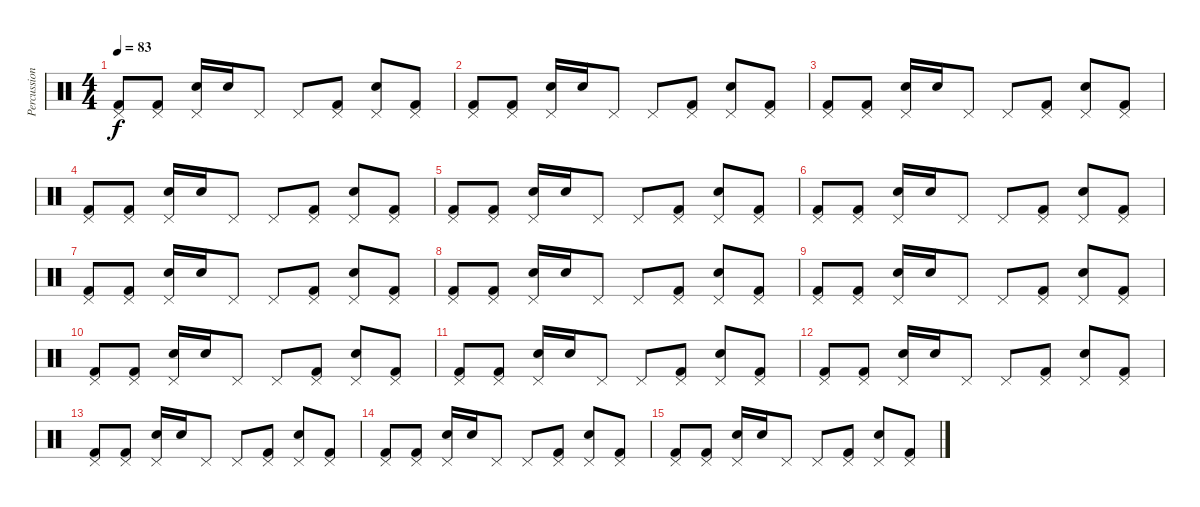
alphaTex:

\track ("Percussion" "Percussion") {instrument percussion}
\staff {score}
\articulation defaults
\ts (4 4)
\tempo 83
\clef neutral
\ks c
("Pedal Hi-Hat (hit)" "Kick (hit) 2").8{dy f} ("Pedal Hi-Hat (hit)" "Kick (hit) 2").8 ("Pedal Hi-Hat (hit)" "Snare (hit) 2").16 "Snare (hit) 2".16 "Pedal Hi-Hat (hit)".8 "Pedal Hi-Hat (hit)".8 ("Pedal Hi-Hat (hit)" "Kick (hit) 2").8 ("Pedal Hi-Hat (hit)" "Snare (hit) 2").8 ("Pedal Hi-Hat (hit)" "Kick (hit) 2").8 |
("Pedal Hi-Hat (hit)" "Kick (hit) 2").8 ("Pedal Hi-Hat (hit)" "Kick (hit) 2").8 ("Pedal Hi-Hat (hit)" "Snare (hit) 2").16 "Snare (hit) 2".16 "Pedal Hi-Hat (hit)".8 "Pedal Hi-Hat (hit)".8 ("Pedal Hi-Hat (hit)" "Kick (hit) 2").8 ("Pedal Hi-Hat (hit)" "Snare (hit) 2").8 ("Pedal Hi-Hat (hit)" "Kick (hit) 2").8 |
("Pedal Hi-Hat (hit)" "Kick (hit) 2").8 ("Pedal Hi-Hat (hit)" "Kick (hit) 2").8 ("Pedal Hi-Hat (hit)" "Snare (hit) 2").16 "Snare (hit) 2".16 "Pedal Hi-Hat (hit)".8 "Pedal Hi-Hat (hit)".8 ("Pedal Hi-Hat (hit)" "Kick (hit) 2").8 ("Pedal Hi-Hat (hit)" "Snare (hit) 2").8 ("Pedal Hi-Hat (hit)" "Kick (hit) 2").8 |
("Pedal Hi-Hat (hit)" "Kick (hit) 2").8 ("Pedal Hi-Hat (hit)" "Kick (hit) 2").8 ("Pedal Hi-Hat (hit)" "Snare (hit) 2").16 "Snare (hit) 2".16 "Pedal Hi-Hat (hit)".8 "Pedal Hi-Hat (hit)".8 ("Pedal Hi-Hat (hit)" "Kick (hit) 2").8 ("Pedal Hi-Hat (hit)" "Snare (hit) 2").8 ("Pedal Hi-Hat (hit)" "Kick (hit) 2").8 |
("Pedal Hi-Hat (hit)" "Kick (hit) 2").8 ("Pedal Hi-Hat (hit)" "Kick (hit) 2").8 ("Pedal Hi-Hat (hit)" "Snare (hit) 2").16 "Snare (hit) 2".16 "Pedal Hi-Hat (hit)".8 "Pedal Hi-Hat (hit)".8 ("Pedal Hi-Hat (hit)" "Kick (hit) 2").8 ("Pedal Hi-Hat (hit)" "Snare (hit) 2").8 ("Pedal Hi-Hat (hit)" "Kick (hit) 2").8 |
("Pedal Hi-Hat (hit)" "Kick (hit) 2").8 ("Pedal Hi-Hat (hit)" "Kick (hit) 2").8 ("Pedal Hi-Hat (hit)" "Snare (hit) 2").16 "Snare (hit) 2".16 "Pedal Hi-Hat (hit)".8 "Pedal Hi-Hat (hit)".8 ("Pedal Hi-Hat (hit)" "Kick (hit) 2").8 ("Pedal Hi-Hat (hit)" "Snare (hit) 2").8 ("Pedal Hi-Hat (hit)" "Kick (hit) 2").8 |
("Pedal Hi-Hat (hit)" "Kick (hit) 2").8 ("Pedal Hi-Hat (hit)" "Kick (hit) 2").8 ("Pedal Hi-Hat (hit)" "Snare (hit) 2").16 "Snare (hit) 2".16 "Pedal Hi-Hat (hit)".8 "Pedal Hi-Hat (hit)".8 ("Pedal Hi-Hat (hit)" "Kick (hit) 2").8 ("Pedal Hi-Hat (hit)" "Snare (hit) 2").8 ("Pedal Hi-Hat (hit)" "Kick (hit) 2").8 |
("Pedal Hi-Hat (hit)" "Kick (hit) 2").8 ("Pedal Hi-Hat (hit)" "Kick (hit) 2").8 ("Pedal Hi-Hat (hit)" "Snare (hit) 2").16 "Snare (hit) 2".16 "Pedal Hi-Hat (hit)".8 "Pedal Hi-Hat (hit)".8 ("Pedal Hi-Hat (hit)" "Kick (hit) 2").8 ("Pedal Hi-Hat (hit)" "Snare (hit) 2").8 ("Pedal Hi-Hat (hit)" "Kick (hit) 2").8 |
("Pedal Hi-Hat (hit)" "Kick (hit) 2").8 ("Pedal Hi-Hat (hit)" "Kick (hit) 2").8 ("Pedal Hi-Hat (hit)" "Snare (hit) 2").16 "Snare (hit) 2".16 "Pedal Hi-Hat (hit)".8 "Pedal Hi-Hat (hit)".8 ("Pedal Hi-Hat (hit)" "Kick (hit) 2").8 ("Pedal Hi-Hat (hit)" "Snare (hit) 2").8 ("Pedal Hi-Hat (hit)" "Kick (hit) 2").8 |
("Pedal Hi-Hat (hit)" "Kick (hit) 2").8 ("Pedal Hi-Hat (hit)" "Kick (hit) 2").8 ("Pedal Hi-Hat (hit)" "Snare (hit) 2").16 "Snare (hit) 2".16 "Pedal Hi-Hat (hit)".8 "Pedal Hi-Hat (hit)".8 ("Pedal Hi-Hat (hit)" "Kick (hit) 2").8 ("Pedal Hi-Hat (hit)" "Snare (hit) 2").8 ("Pedal Hi-Hat (hit)" "Kick (hit) 2").8 |
("Pedal Hi-Hat (hit)" "Kick (hit) 2").8 ("Pedal Hi-Hat (hit)" "Kick (hit) 2").8 ("Pedal Hi-Hat (hit)" "Snare (hit) 2").16 "Snare (hit) 2".16 "Pedal Hi-Hat (hit)".8 "Pedal Hi-Hat (hit)".8 ("Pedal Hi-Hat (hit)" "Kick (hit) 2").8 ("Pedal Hi-Hat (hit)" "Snare (hit) 2").8 ("Pedal Hi-Hat (hit)" "Kick (hit) 2").8 |
("Pedal Hi-Hat (hit)" "Kick (hit) 2").8 ("Pedal Hi-Hat (hit)" "Kick (hit) 2").8 ("Pedal Hi-Hat (hit)" "Snare (hit) 2").16 "Snare (hit) 2".16 "Pedal Hi-Hat (hit)".8 "Pedal Hi-Hat (hit)".8 ("Pedal Hi-Hat (hit)" "Kick (hit) 2").8 ("Pedal Hi-Hat (hit)" "Snare (hit) 2").8 ("Pedal Hi-Hat (hit)" "Kick (hit) 2").8 |
("Pedal Hi-Hat (hit)" "Kick (hit) 2").8 ("Pedal Hi-Hat (hit)" "Kick (hit) 2").8 ("Pedal Hi-Hat (hit)" "Snare (hit) 2").16 "Snare (hit) 2".16 "Pedal Hi-Hat (hit)".8 "Pedal Hi-Hat (hit)".8 ("Pedal Hi-Hat (hit)" "Kick (hit) 2").8 ("Pedal Hi-Hat (hit)" "Snare (hit) 2").8 ("Pedal Hi-Hat (hit)" "Kick (hit) 2").8 |
("Pedal Hi-Hat (hit)" "Kick (hit) 2").8 ("Pedal Hi-Hat (hit)" "Kick (hit) 2").8 ("Pedal Hi-Hat (hit)" "Snare (hit) 2").16 "Snare (hit) 2".16 "Pedal Hi-Hat (hit)".8 "Pedal Hi-Hat (hit)".8 ("Pedal Hi-Hat (hit)" "Kick (hit) 2").8 ("Pedal Hi-Hat (hit)" "Snare (hit) 2").8 ("Pedal Hi-Hat (hit)" "Kick (hit) 2").8 |
("Pedal Hi-Hat (hit)" "Kick (hit) 2").8 ("Pedal Hi-Hat (hit)" "Kick (hit) 2").8 ("Pedal Hi-Hat (hit)" "Snare (hit) 2").16 "Snare (hit) 2".16 "Pedal Hi-Hat (hit)".8 "Pedal Hi-Hat (hit)".8 ("Pedal Hi-Hat (hit)" "Kick (hit) 2").8 ("Pedal Hi-Hat (hit)" "Snare (hit) 2").8 ("Pedal Hi-Hat (hit)" "Kick (hit) 2").8
